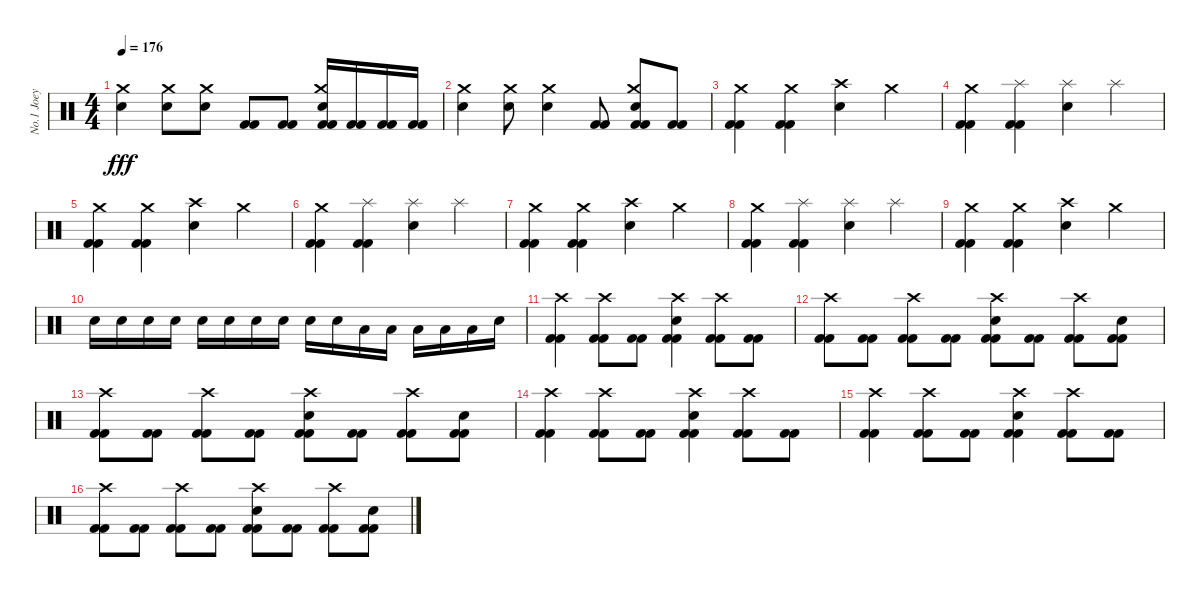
\track ("No.1 Joey" "No.1 Joey") {instrument percussion}
\staff {score}
\articulation defaults
\ts (4 4)
\tempo 176
\clef neutral
\ks c
("Electric Snare (hit)" "Crash medium (hit)").4{dy fff} ("Electric Snare (hit)" "Crash medium (hit)").8 ("Electric Snare (hit)" "Crash medium (hit)").8 ("Kick (hit) 2" "Kick (hit) 2").8 ("Kick (hit) 2" "Kick (hit) 2").8 ("Electric Snare (hit)" "Crash medium (hit)" "Kick (hit) 2" "Kick (hit) 2").16 ("Kick (hit) 2" "Kick (hit) 2").16 ("Kick (hit) 2" "Kick (hit) 2").16 ("Kick (hit) 2" "Kick (hit) 2").16 |
("Electric Snare (hit)" "Crash medium (hit)").4 ("Electric Snare (hit)" "Crash medium (hit)").8 ("Electric Snare (hit)" "Crash medium (hit)").4 ("Kick (hit) 2" "Kick (hit) 2").8 ("Electric Snare (hit)" "Crash medium (hit)" "Kick (hit) 2" "Kick (hit) 2").8 ("Kick (hit) 2" "Kick (hit) 2").8 |
("Crash medium (hit)" "Kick (hit) 2" "Kick (hit) 2").4 ("Crash medium (hit)" "Kick (hit) 2" "Kick (hit) 2").4 ("Electric Snare (hit)" "Crash high (hit)").4 "Crash medium (hit)".4 |
("Crash medium (hit)" "Kick (hit) 2" "Kick (hit) 2").4 ("Splash (hit)" "Kick (hit) 2" "Kick (hit) 2").4 ("Electric Snare (hit)" "Splash (hit)").4 "Splash (hit)".4 |
("Crash medium (hit)" "Kick (hit) 2" "Kick (hit) 2").4 ("Crash medium (hit)" "Kick (hit) 2" "Kick (hit) 2").4 ("Electric Snare (hit)" "Crash high (hit)").4 "Crash medium (hit)".4 |
("Crash medium (hit)" "Kick (hit) 2" "Kick (hit) 2").4 ("Splash (hit)" "Kick (hit) 2" "Kick (hit) 2").4 ("Electric Snare (hit)" "Splash (hit)").4 "Splash (hit)".4 |
("Crash medium (hit)" "Kick (hit) 2" "Kick (hit) 2").4 ("Crash medium (hit)" "Kick (hit) 2" "Kick (hit) 2").4 ("Electric Snare (hit)" "Crash high (hit)").4 "Crash medium (hit)".4 |
("Crash medium (hit)" "Kick (hit) 2" "Kick (hit) 2").4 ("Splash (hit)" "Kick (hit) 2" "Kick (hit) 2").4 ("Electric Snare (hit)" "Splash (hit)").4 "Splash (hit)".4 |
("Crash medium (hit)" "Kick (hit) 2" "Kick (hit) 2").4 ("Crash medium (hit)" "Kick (hit) 2" "Kick (hit) 2").4 ("Electric Snare (hit)" "Crash high (hit)").4 "Crash medium (hit)".4 |
"Electric Snare (hit)".16 "Electric Snare (hit)".16 "Electric Snare (hit)".16 "Electric Snare (hit)".16 "Electric Snare (hit)".16 "Snare (hit) 2".16 "Snare (hit) 2".16 "Snare (hit) 2".16 "Snare (hit) 2".16 "Snare (hit) 2".16 "Low Floor Tom (hit)".16 "Low Floor Tom (hit)".16 "Low Floor Tom (hit)".16 "Low Floor Tom (hit)".16 "Low Floor Tom (hit)".16 "Electric Snare (hit)".16 |
("Crash high (hit)" "Kick (hit) 2" "Kick (hit) 2").4 ("Crash high (hit)" "Kick (hit) 2" "Kick (hit) 2").8 ("Kick (hit) 2" "Kick (hit) 2").8 ("Electric Snare (hit)" "Crash high (hit)" "Kick (hit) 2" "Kick (hit) 2").4 ("Crash high (hit)" "Kick (hit) 2" "Kick (hit) 2").8 ("Kick (hit) 2" "Kick (hit) 2").8 |
("Crash high (hit)" "Kick (hit) 2" "Kick (hit) 2").8 ("Kick (hit) 2" "Kick (hit) 2").8 ("Crash high (hit)" "Kick (hit) 2" "Kick (hit) 2").8 ("Kick (hit) 2" "Kick (hit) 2").8 ("Electric Snare (hit)" "Crash high (hit)" "Kick (hit) 2" "Kick (hit) 2").8 ("Kick (hit) 2" "Kick (hit) 2").8 ("Crash high (hit)" "Kick (hit) 2" "Kick (hit) 2").8 ("Electric Snare (hit)" "Kick (hit) 2" "Kick (hit) 2").8 |
("Crash high (hit)" "Kick (hit) 2" "Kick (hit) 2").8 ("Kick (hit) 2" "Kick (hit) 2").8 ("Crash high (hit)" "Kick (hit) 2" "Kick (hit) 2").8 ("Kick (hit) 2" "Kick (hit) 2").8 ("Electric Snare (hit)" "Crash high (hit)" "Kick (hit) 2" "Kick (hit) 2").8 ("Kick (hit) 2" "Kick (hit) 2").8 ("Crash high (hit)" "Kick (hit) 2" "Kick (hit) 2").8 ("Electric Snare (hit)" "Kick (hit) 2" "Kick (hit) 2").8 |
("Crash high (hit)" "Kick (hit) 2" "Kick (hit) 2").4 ("Crash high (hit)" "Kick (hit) 2" "Kick (hit) 2").8 ("Kick (hit) 2" "Kick (hit) 2").8 ("Electric Snare (hit)" "Crash high (hit)" "Kick (hit) 2" "Kick (hit) 2").4 ("Crash high (hit)" "Kick (hit) 2" "Kick (hit) 2").8 ("Kick (hit) 2" "Kick (hit) 2").8 |
("Crash high (hit)" "Kick (hit) 2" "Kick (hit) 2").4 ("Crash high (hit)" "Kick (hit) 2" "Kick (hit) 2").8 ("Kick (hit) 2" "Kick (hit) 2").8 ("Electric Snare (hit)" "Crash high (hit)" "Kick (hit) 2" "Kick (hit) 2").4 ("Crash high (hit)" "Kick (hit) 2" "Kick (hit) 2").8 ("Kick (hit) 2" "Kick (hit) 2").8 |
("Crash high (hit)" "Kick (hit) 2" "Kick (hit) 2").8 ("Kick (hit) 2" "Kick (hit) 2").8 ("Crash high (hit)" "Kick (hit) 2" "Kick (hit) 2").8 ("Kick (hit) 2" "Kick (hit) 2").8 ("Electric Snare (hit)" "Crash high (hit)" "Kick (hit) 2" "Kick (hit) 2").8 ("Kick (hit) 2" "Kick (hit) 2").8 ("Crash high (hit)" "Kick (hit) 2" "Kick (hit) 2").8 ("Electric Snare (hit)" "Kick (hit) 2" "Kick (hit) 2").8
